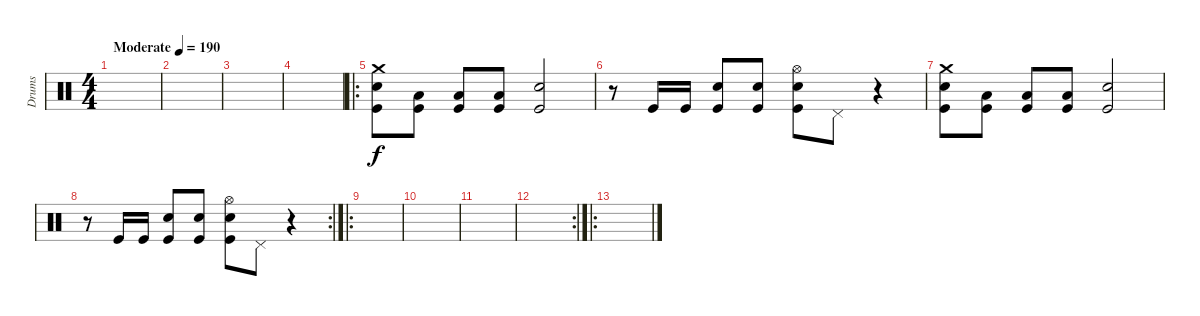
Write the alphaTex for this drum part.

\track ("Drums" "Drums") {instrument percussion}
\staff {score}
\articulation defaults
\ts (4 4)
\tempo (190 "Moderate")
\clef neutral
\ks c
|
|
|
|
\ro
("Crash medium (hit)" "Snare (hit) 2" "Kick (hit)").8 ("Low Floor Tom (hit)" "Kick (hit)").8 ("Low Floor Tom (hit)" "Kick (hit)").8 ("Low Floor Tom (hit)" "Kick (hit)").8 ("Snare (hit) 2" "Kick (hit)").2 |
r.8 "Kick (hit)".16 "Kick (hit)".16 ("Snare (hit) 2" "Kick (hit)").8 ("Snare (hit) 2" "Kick (hit)").8 ("Hi-Hat (open)" "Snare (hit) 2" "Kick (hit)").8 "Pedal Hi-Hat (hit)".8 r.4 |
("Crash medium (hit)" "Snare (hit) 2" "Kick (hit)").8 ("Low Floor Tom (hit)" "Kick (hit)").8 ("Low Floor Tom (hit)" "Kick (hit)").8 ("Low Floor Tom (hit)" "Kick (hit)").8 ("Snare (hit) 2" "Kick (hit)").2 |
\rc 2
r.8 "Kick (hit)".16 "Kick (hit)".16 ("Snare (hit) 2" "Kick (hit)").8 ("Snare (hit) 2" "Kick (hit)").8 ("Hi-Hat (open)" "Snare (hit) 2" "Kick (hit)").8 "Pedal Hi-Hat (hit)".8 r.4 |
\ro
|
|
|
\rc 2
|
\ro
